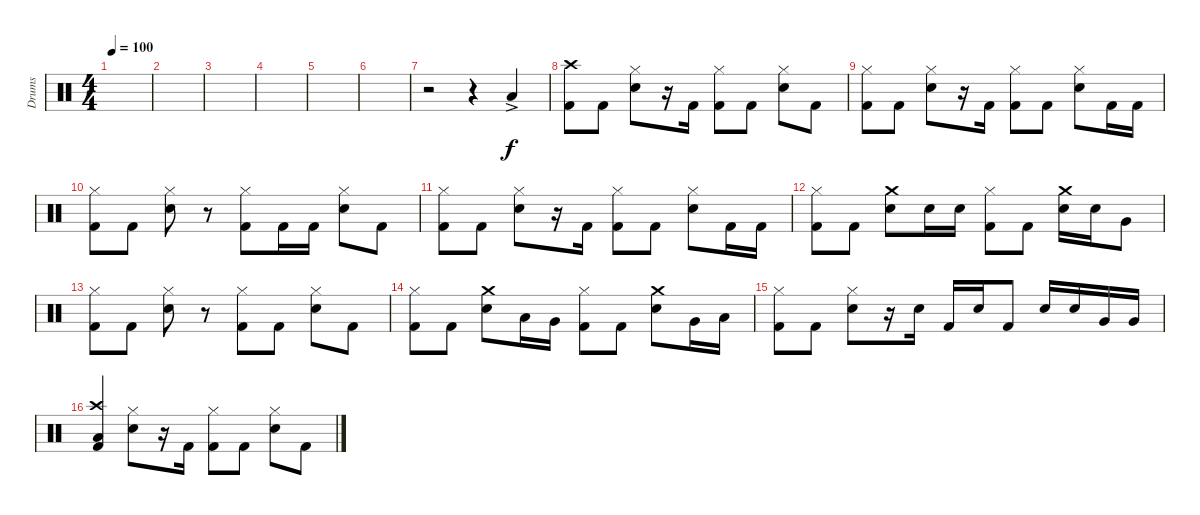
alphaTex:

\track ("Drums" "Drums") {instrument percussion}
\staff {score}
\articulation defaults
\ts (4 4)
\tempo 100
\clef neutral
\ks c
|
|
|
|
|
|
r.2 r.4 "Low Floor Tom (hit)"{ac}.4 |
\section ("" "")
("Crash high (hit)" "Kick (hit) 2").8{dy f} "Kick (hit) 2".8 ("Hi-Hat (closed)" "Snare (hit) 2").8 r.16 "Kick (hit) 2".16 ("Hi-Hat (closed)" "Kick (hit) 2").8 "Kick (hit) 2".8 ("Hi-Hat (closed)" "Snare (hit) 2").8 "Kick (hit) 2".8 |
("Hi-Hat (closed)" "Kick (hit) 2").8 "Kick (hit) 2".8 ("Hi-Hat (closed)" "Snare (hit) 2").8 r.16 "Kick (hit) 2".16 ("Hi-Hat (closed)" "Kick (hit) 2").8 "Kick (hit) 2".8 ("Hi-Hat (closed)" "Snare (hit) 2").8 "Kick (hit) 2".16 "Kick (hit) 2".16 |
("Hi-Hat (closed)" "Kick (hit) 2").8 "Kick (hit) 2".8 ("Hi-Hat (closed)" "Snare (hit) 2").8 r.8 ("Hi-Hat (closed)" "Kick (hit) 2").8 "Kick (hit) 2".16 "Kick (hit) 2".16 ("Hi-Hat (closed)" "Snare (hit) 2").8 "Kick (hit) 2".8 |
("Hi-Hat (closed)" "Kick (hit) 2").8 "Kick (hit) 2".8 ("Hi-Hat (closed)" "Snare (hit) 2").8 r.16 "Kick (hit) 2".16 ("Hi-Hat (closed)" "Kick (hit) 2").8 "Kick (hit) 2".8 ("Hi-Hat (closed)" "Snare (hit) 2").8 "Kick (hit) 2".16 "Kick (hit) 2".16 |
("Hi-Hat (closed)" "Kick (hit) 2").8 "Kick (hit) 2".8 ("Crash medium (hit)" "Snare (hit) 2").8 "Snare (hit) 2".16 "Snare (hit) 2".16 ("Hi-Hat (closed)" "Kick (hit) 2").8 "Kick (hit) 2".8 ("Crash medium (hit)" "Snare (hit) 2").16 "Snare (hit) 2".16 "Very Low Tom (hit)".8 |
("Hi-Hat (closed)" "Kick (hit) 2").8 "Kick (hit) 2".8 ("Hi-Hat (closed)" "Snare (hit) 2").8 r.8 ("Hi-Hat (closed)" "Kick (hit) 2").8 "Kick (hit) 2".8 ("Hi-Hat (closed)" "Snare (hit) 2").8 "Kick (hit) 2".8 |
("Hi-Hat (closed)" "Kick (hit) 2").8 "Kick (hit) 2".8 ("Crash medium (hit)" "Snare (hit) 2").8 "Low Tom (hit)".16 "Very Low Tom (hit)".16 ("Hi-Hat (closed)" "Kick (hit) 2").8 "Kick (hit) 2".8 ("Crash medium (hit)" "Snare (hit) 2").8 "Very Low Tom (hit)".16 "Low Floor Tom (hit)".16 |
("Hi-Hat (closed)" "Kick (hit) 2").8 "Kick (hit) 2".8 ("Hi-Hat (closed)" "Snare (hit) 2").8 r.16 "Snare (hit) 2".16 "Kick (hit) 2".16 "Snare (hit) 2".16 "Kick (hit) 2".8 "Snare (hit) 2".16 "Snare (hit) 2".16 "Very Low Tom (hit)".16 "Very Low Tom (hit)".16 |
("Crash high (hit)" "Low Floor Tom (hit)" "Kick (hit) 2").4 ("Hi-Hat (closed)" "Snare (hit) 2").8 r.16 "Kick (hit) 2".16 ("Hi-Hat (closed)" "Kick (hit) 2").8 "Kick (hit) 2".8 ("Hi-Hat (closed)" "Snare (hit) 2").8 "Kick (hit) 2".8
